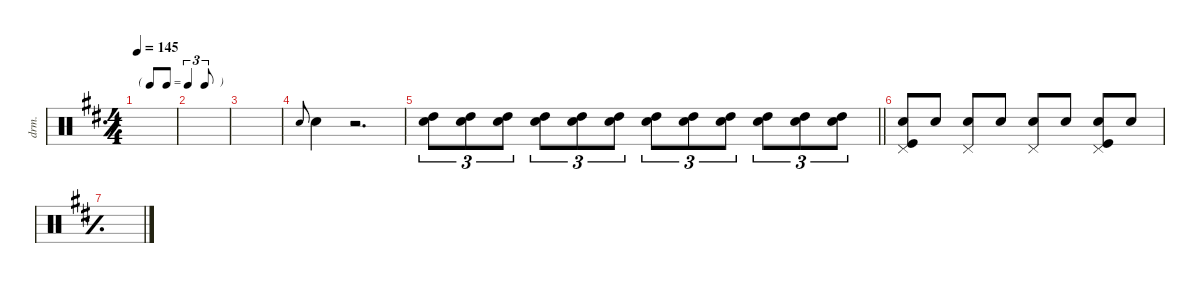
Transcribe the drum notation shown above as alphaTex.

\defaultSystemsLayout 4
\hideDynamics
\bracketExtendMode nobrackets
\otherSystemsTrackNameOrientation horizontal
\track ("Drumkit" "drm.") {instrument percussion}
\staff {score}
\articulation defaults
\ts (4 4)
\tf triplet8th
\tempo 145
\clef neutral
\simile simple
\ks d
|
|
|
\simile none "Snare (hit) 2".8{gr onbeat dy ff} "Snare (hit) 2".4
r.2{d} |
\barLineRight lightlight
("Snare (hit) 2" "High Tom (hit)").8{tu (3 2)} ("Snare (hit) 2" "High Tom (hit)").8{tu (3 2)} ("Snare (hit) 2" "High Tom (hit)").8{tu (3 2)} ("Snare (hit) 2" "High Tom (hit)").8{tu (3 2)} ("Snare (hit) 2" "High Tom (hit)").8{tu (3 2)} ("Snare (hit) 2" "High Tom (hit)").8{tu (3 2)} ("Snare (hit) 2" "High Tom (hit)").8{tu (3 2)} ("Snare (hit) 2" "High Tom (hit)").8{tu (3 2)} ("Snare (hit) 2" "High Tom (hit)").8{tu (3 2)} ("Snare (hit) 2" "High Tom (hit)").8{tu (3 2)} ("Snare (hit) 2" "High Tom (hit)").8{tu (3 2)} ("Snare (hit) 2" "High Tom (hit)").8{tu (3 2)} |
("Snare (hit) 2" "Pedal Hi-Hat (hit)" "Kick (hit)").8{dy pp} "Snare (hit) 2".8 ("Snare (hit) 2" "Pedal Hi-Hat (hit)").8{dy f} "Snare (hit) 2".8{dy pp} ("Snare (hit) 2" "Pedal Hi-Hat (hit)").8 "Snare (hit) 2".8 ("Snare (hit) 2" "Pedal Hi-Hat (hit)" "Kick (hit)").8{dy f} "Snare (hit) 2".8{dy pp} |
\simile simple
